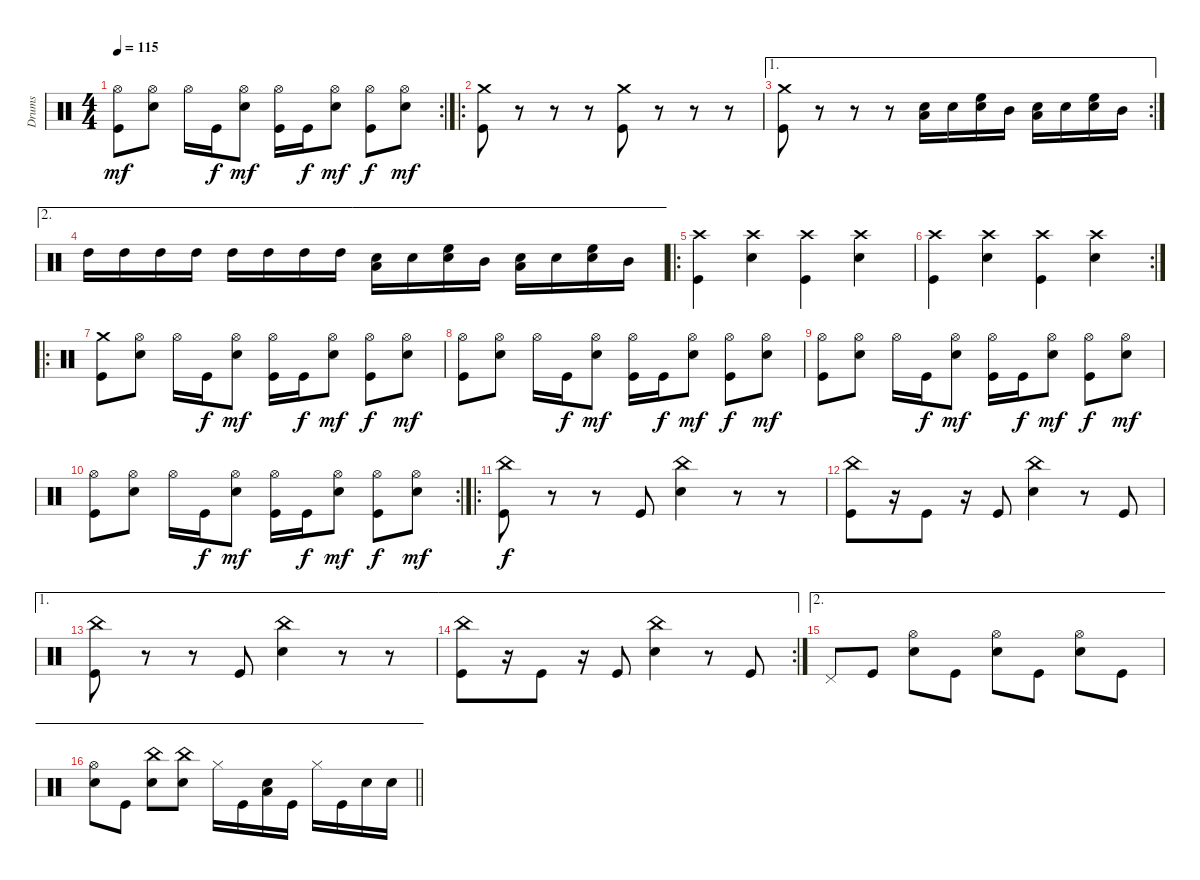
\bracketExtendMode groupsimilarinstruments
\otherSystemsTrackNameOrientation horizontal
\track ("Drumkit" "Drums") {instrument percussion}
\staff {score}
\articulation defaults
\rc 2
\ts (4 4)
\tempo 115
\clef neutral
\ks c
("Hi-Hat (open)" "Kick (hit)").8{dy mf} ("Hi-Hat (open)" "Snare (hit) 2").8 "Hi-Hat (open)".16 "Kick (hit)".16{dy f} ("Hi-Hat (open)" "Snare (hit) 2").8{dy mf} ("Hi-Hat (open)" "Kick (hit)").16 "Kick (hit)".16{dy f} ("Hi-Hat (open)" "Snare (hit) 2").8{dy mf} ("Kick (hit)" "Hi-Hat (open)").8{dy f} ("Hi-Hat (open)" "Snare (hit) 2").8{dy mf} |
\ro
("Crash medium (hit)" "Kick (hit)").8 r.8 r.8 r.8 ("Crash medium (hit)" "Kick (hit)").8 r.8 r.8 r.8 |
\ae 1
\rc 2
("Crash medium (hit)" "Kick (hit)").8 r.8 r.8 r.8 ("Low Tom (hit)" "Snare (hit) 2").16 "Snare (hit) 2".16 ("Snare (hit) 2" "High Floor Tom (hit)").16 "Mid Tom (hit)".16 ("Low Tom (hit)" "Snare (hit) 2").16 "Snare (hit) 2".16 ("Snare (hit) 2" "High Floor Tom (hit)").16 "Mid Tom (hit)".16 |
\ae 2 "High Tom (hit)".16 "High Tom (hit)".16 "High Tom (hit)".16 "High Tom (hit)".16 "High Tom (hit)".16 "High Tom (hit)".16 "High Tom (hit)".16 "High Tom (hit)".16
("Low Tom (hit)" "Snare (hit) 2").16 "Snare (hit) 2".16 ("Snare (hit) 2" "High Floor Tom (hit)").16 "Mid Tom (hit)".16 ("Low Tom (hit)" "Snare (hit) 2").16 "Snare (hit) 2".16 ("Snare (hit) 2" "High Floor Tom (hit)").16 "Mid Tom (hit)".16 |
\ro
("Crash high (hit)" "Kick (hit)").4 ("Crash high (hit)" "Snare (hit) 2").4 ("Crash high (hit)" "Kick (hit)").4 ("Crash high (hit)" "Snare (hit) 2").4 |
\rc 2
("Crash high (hit)" "Kick (hit)").4 ("Crash high (hit)" "Snare (hit) 2").4 ("Crash high (hit)" "Kick (hit)").4 ("Crash high (hit)" "Snare (hit) 2").4 |
\ro
("Crash medium (hit)" "Kick (hit)").8 ("Hi-Hat (open)" "Snare (hit) 2").8 "Hi-Hat (open)".16 "Kick (hit)".16{dy f} ("Hi-Hat (open)" "Snare (hit) 2").8{dy mf} ("Hi-Hat (open)" "Kick (hit)").16 "Kick (hit)".16{dy f} ("Hi-Hat (open)" "Snare (hit) 2").8{dy mf} ("Kick (hit)" "Hi-Hat (open)").8{dy f} ("Hi-Hat (open)" "Snare (hit) 2").8{dy mf} |
("Hi-Hat (open)" "Kick (hit)").8 ("Hi-Hat (open)" "Snare (hit) 2").8 "Hi-Hat (open)".16 "Kick (hit)".16{dy f} ("Hi-Hat (open)" "Snare (hit) 2").8{dy mf} ("Hi-Hat (open)" "Kick (hit)").16 "Kick (hit)".16{dy f} ("Hi-Hat (open)" "Snare (hit) 2").8{dy mf} ("Kick (hit)" "Hi-Hat (open)").8{dy f} ("Hi-Hat (open)" "Snare (hit) 2").8{dy mf} |
("Hi-Hat (open)" "Kick (hit)").8 ("Hi-Hat (open)" "Snare (hit) 2").8 "Hi-Hat (open)".16 "Kick (hit)".16{dy f} ("Hi-Hat (open)" "Snare (hit) 2").8{dy mf} ("Hi-Hat (open)" "Kick (hit)").16 "Kick (hit)".16{dy f} ("Hi-Hat (open)" "Snare (hit) 2").8{dy mf} ("Kick (hit)" "Hi-Hat (open)").8{dy f} ("Hi-Hat (open)" "Snare (hit) 2").8{dy mf} |
\rc 2
("Hi-Hat (open)" "Kick (hit)").8 ("Hi-Hat (open)" "Snare (hit) 2").8 "Hi-Hat (open)".16 "Kick (hit)".16{dy f} ("Hi-Hat (open)" "Snare (hit) 2").8{dy mf} ("Hi-Hat (open)" "Kick (hit)").16 "Kick (hit)".16{dy f} ("Hi-Hat (open)" "Snare (hit) 2").8{dy mf} ("Kick (hit)" "Hi-Hat (open)").8{dy f} ("Hi-Hat (open)" "Snare (hit) 2").8{dy mf} |
\ro
("China (hit)" "Kick (hit)").8{dy f} r.8 r.8 "Kick (hit)".8 ("China (hit)" "Snare (hit) 2").4 r.8 r.8 |
("China (hit)" "Kick (hit)").8 r.16 "Kick (hit)".8 r.16 "Kick (hit)".8 ("China (hit)" "Snare (hit) 2").4 r.8 "Kick (hit)".8 |
\ae 1
("China (hit)" "Kick (hit)").8 r.8 r.8 "Kick (hit)".8 ("China (hit)" "Snare (hit) 2").4 r.8 r.8 |
\ae 1
\rc 2
("China (hit)" "Kick (hit)").8 r.16 "Kick (hit)".8 r.16 "Kick (hit)".8 ("China (hit)" "Snare (hit) 2").4 r.8 "Kick (hit)".8 |
\ae 2 "Pedal Hi-Hat (hit)".8 "Kick (hit)".8
("Hi-Hat (open)" "Snare (hit) 2").8 "Kick (hit)".8 ("Hi-Hat (open)" "Snare (hit) 2").8 "Kick (hit)".8 ("Hi-Hat (open)" "Snare (hit) 2").8 "Kick (hit)".8 |
\ae 2
\barLineRight lightlight
("Hi-Hat (open)" "Snare (hit) 2").8 "Kick (hit)".8 ("China (hit)" "Snare (hit) 2").8 ("China (hit)" "Snare (hit) 2").8 "Hi-Hat (closed)".16 "Kick (hit)".16 ("Snare (hit) 2" "Low Tom (hit)").16 "Kick (hit)".16 "Hi-Hat (closed)".16 "Kick (hit)".16 "Snare (hit) 2".16 "Snare (hit) 2".16
